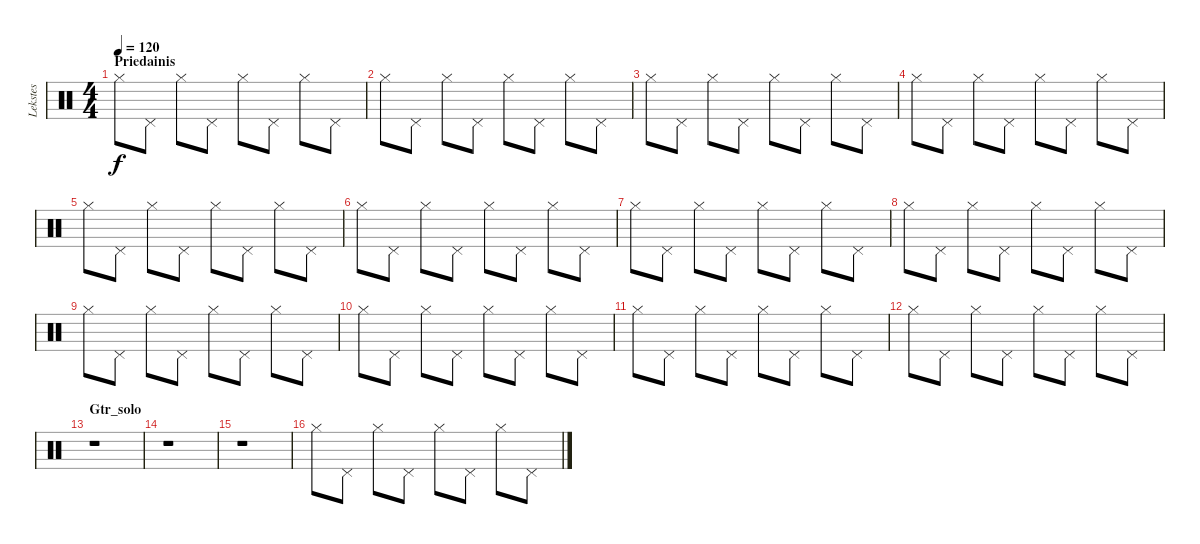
\track ("Lekstes" "Lekstes") {instrument percussion}
\staff {score}
\articulation defaults
\ts (4 4)
\section ("" "Priedainis")
\tempo 120
\clef neutral
\ks c "Hi-Hat (closed)".8{dy f} "Pedal Hi-Hat (hit)".8 "Hi-Hat (closed)".8 "Pedal Hi-Hat (hit)".8 "Hi-Hat (closed)".8 "Pedal Hi-Hat (hit)".8 "Hi-Hat (closed)".8 "Pedal Hi-Hat (hit)".8
|
"Hi-Hat (closed)".8 "Pedal Hi-Hat (hit)".8 "Hi-Hat (closed)".8 "Pedal Hi-Hat (hit)".8 "Hi-Hat (closed)".8 "Pedal Hi-Hat (hit)".8 "Hi-Hat (closed)".8 "Pedal Hi-Hat (hit)".8 |
"Hi-Hat (closed)".8 "Pedal Hi-Hat (hit)".8 "Hi-Hat (closed)".8 "Pedal Hi-Hat (hit)".8 "Hi-Hat (closed)".8 "Pedal Hi-Hat (hit)".8 "Hi-Hat (closed)".8 "Pedal Hi-Hat (hit)".8 |
"Hi-Hat (closed)".8 "Pedal Hi-Hat (hit)".8 "Hi-Hat (closed)".8 "Pedal Hi-Hat (hit)".8 "Hi-Hat (closed)".8 "Pedal Hi-Hat (hit)".8 "Hi-Hat (closed)".8 "Pedal Hi-Hat (hit)".8 |
"Hi-Hat (closed)".8 "Pedal Hi-Hat (hit)".8 "Hi-Hat (closed)".8 "Pedal Hi-Hat (hit)".8 "Hi-Hat (closed)".8 "Pedal Hi-Hat (hit)".8 "Hi-Hat (closed)".8 "Pedal Hi-Hat (hit)".8 |
"Hi-Hat (closed)".8 "Pedal Hi-Hat (hit)".8 "Hi-Hat (closed)".8 "Pedal Hi-Hat (hit)".8 "Hi-Hat (closed)".8 "Pedal Hi-Hat (hit)".8 "Hi-Hat (closed)".8 "Pedal Hi-Hat (hit)".8 |
"Hi-Hat (closed)".8 "Pedal Hi-Hat (hit)".8 "Hi-Hat (closed)".8 "Pedal Hi-Hat (hit)".8 "Hi-Hat (closed)".8 "Pedal Hi-Hat (hit)".8 "Hi-Hat (closed)".8 "Pedal Hi-Hat (hit)".8 |
"Hi-Hat (closed)".8 "Pedal Hi-Hat (hit)".8 "Hi-Hat (closed)".8 "Pedal Hi-Hat (hit)".8 "Hi-Hat (closed)".8 "Pedal Hi-Hat (hit)".8 "Hi-Hat (closed)".8 "Pedal Hi-Hat (hit)".8 |
"Hi-Hat (closed)".8 "Pedal Hi-Hat (hit)".8 "Hi-Hat (closed)".8 "Pedal Hi-Hat (hit)".8 "Hi-Hat (closed)".8 "Pedal Hi-Hat (hit)".8 "Hi-Hat (closed)".8 "Pedal Hi-Hat (hit)".8 |
"Hi-Hat (closed)".8 "Pedal Hi-Hat (hit)".8 "Hi-Hat (closed)".8 "Pedal Hi-Hat (hit)".8 "Hi-Hat (closed)".8 "Pedal Hi-Hat (hit)".8 "Hi-Hat (closed)".8 "Pedal Hi-Hat (hit)".8 |
"Hi-Hat (closed)".8 "Pedal Hi-Hat (hit)".8 "Hi-Hat (closed)".8 "Pedal Hi-Hat (hit)".8 "Hi-Hat (closed)".8 "Pedal Hi-Hat (hit)".8 "Hi-Hat (closed)".8 "Pedal Hi-Hat (hit)".8 |
"Hi-Hat (closed)".8 "Pedal Hi-Hat (hit)".8 "Hi-Hat (closed)".8 "Pedal Hi-Hat (hit)".8 "Hi-Hat (closed)".8 "Pedal Hi-Hat (hit)".8 "Hi-Hat (closed)".8 "Pedal Hi-Hat (hit)".8 |
\section ("" "Gtr_solo")
r.1 |
r.1 |
r.1 |
"Hi-Hat (closed)".8 "Pedal Hi-Hat (hit)".8 "Hi-Hat (closed)".8 "Pedal Hi-Hat (hit)".8 "Hi-Hat (closed)".8 "Pedal Hi-Hat (hit)".8 "Hi-Hat (closed)".8 "Pedal Hi-Hat (hit)".8
